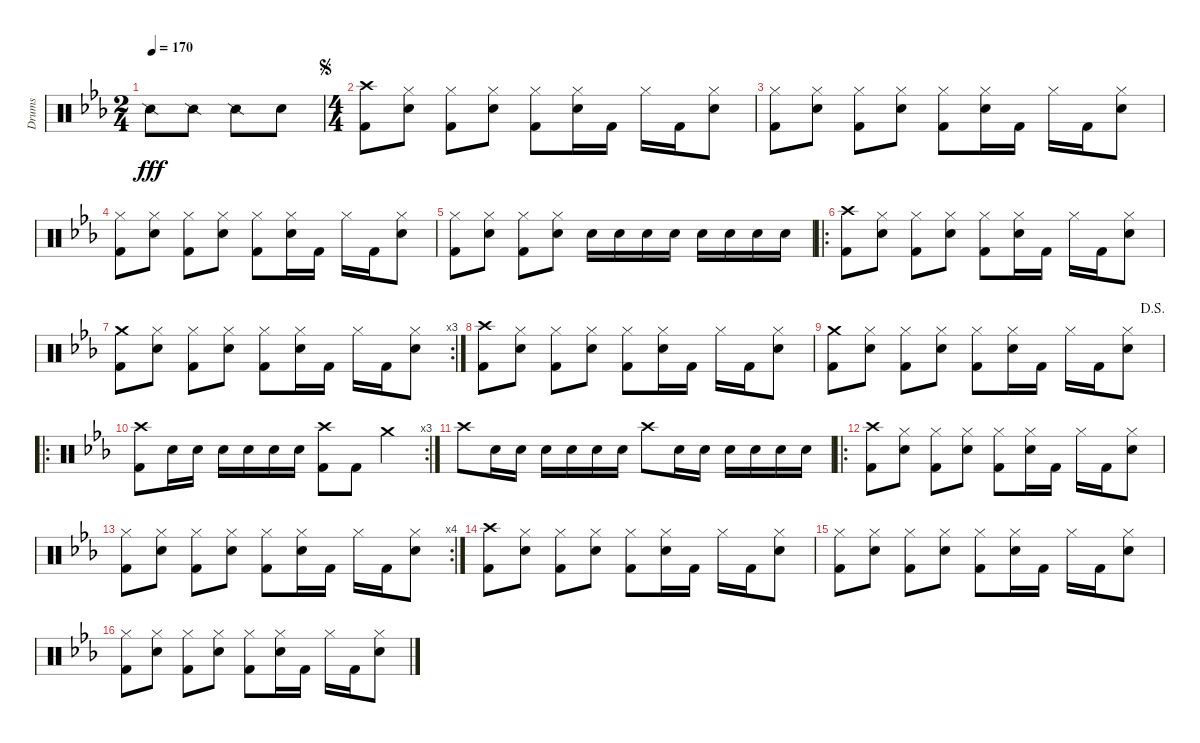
\track ("Drums" "Drums") {instrument percussion}
\staff {score}
\articulation defaults
\ts (2 4)
\tempo 170
\clef neutral
\ks eb "Snare (side stick) 2".8{dy fff} "Snare (side stick) 2".8 "Snare (side stick) 2".8 "Electric Snare (hit)".8
|
\ts (4 4)
\jump segno
("Crash high (hit)" "Kick (hit) 2").8 ("Hi-Hat (closed)" "Electric Snare (hit)").8 ("Hi-Hat (closed)" "Kick (hit) 2").8 ("Hi-Hat (closed)" "Electric Snare (hit)").8 ("Hi-Hat (closed)" "Kick (hit) 2").8 ("Hi-Hat (closed)" "Electric Snare (hit)").16 "Kick (hit) 2".16 "Hi-Hat (closed)".16 "Kick (hit) 2".16 ("Hi-Hat (closed)" "Electric Snare (hit)").8 |
("Hi-Hat (closed)" "Kick (hit) 2").8 ("Hi-Hat (closed)" "Electric Snare (hit)").8 ("Hi-Hat (closed)" "Kick (hit) 2").8 ("Hi-Hat (closed)" "Electric Snare (hit)").8 ("Hi-Hat (closed)" "Kick (hit) 2").8 ("Hi-Hat (closed)" "Electric Snare (hit)").16 "Kick (hit) 2".16 "Hi-Hat (closed)".16 "Kick (hit) 2".16 ("Hi-Hat (closed)" "Electric Snare (hit)").8 |
("Hi-Hat (closed)" "Kick (hit) 2").8 ("Hi-Hat (closed)" "Electric Snare (hit)").8 ("Hi-Hat (closed)" "Kick (hit) 2").8 ("Hi-Hat (closed)" "Electric Snare (hit)").8 ("Hi-Hat (closed)" "Kick (hit) 2").8 ("Hi-Hat (closed)" "Electric Snare (hit)").16 "Kick (hit) 2".16 "Hi-Hat (closed)".16 "Kick (hit) 2".16 ("Hi-Hat (closed)" "Electric Snare (hit)").8 |
("Hi-Hat (closed)" "Kick (hit) 2").8 ("Hi-Hat (closed)" "Electric Snare (hit)").8 ("Hi-Hat (closed)" "Kick (hit) 2").8 ("Hi-Hat (closed)" "Electric Snare (hit)").8 "Electric Snare (hit)".16 "Electric Snare (hit)".16 "Electric Snare (hit)".16 "Electric Snare (hit)".16 "Electric Snare (hit)".16 "Electric Snare (hit)".16 "Electric Snare (hit)".16 "Electric Snare (hit)".16 |
\ro
("Crash high (hit)" "Kick (hit) 2").8 ("Hi-Hat (closed)" "Electric Snare (hit)").8 ("Hi-Hat (closed)" "Kick (hit) 2").8 ("Hi-Hat (closed)" "Electric Snare (hit)").8 ("Hi-Hat (closed)" "Kick (hit) 2").8 ("Hi-Hat (closed)" "Electric Snare (hit)").16 "Kick (hit) 2".16 "Hi-Hat (closed)".16 "Kick (hit) 2".16 ("Hi-Hat (closed)" "Electric Snare (hit)").8 |
\rc 3
("Crash medium (hit)" "Kick (hit) 2").8 ("Hi-Hat (closed)" "Electric Snare (hit)").8 ("Hi-Hat (closed)" "Kick (hit) 2").8 ("Hi-Hat (closed)" "Electric Snare (hit)").8 ("Hi-Hat (closed)" "Kick (hit) 2").8 ("Hi-Hat (closed)" "Electric Snare (hit)").16 "Kick (hit) 2".16 "Hi-Hat (closed)".16 "Kick (hit) 2".16 ("Hi-Hat (closed)" "Electric Snare (hit)").8 |
("Crash high (hit)" "Kick (hit) 2").8 ("Hi-Hat (closed)" "Electric Snare (hit)").8 ("Hi-Hat (closed)" "Kick (hit) 2").8 ("Hi-Hat (closed)" "Electric Snare (hit)").8 ("Hi-Hat (closed)" "Kick (hit) 2").8 ("Hi-Hat (closed)" "Electric Snare (hit)").16 "Kick (hit) 2".16 "Hi-Hat (closed)".16 "Kick (hit) 2".16 ("Hi-Hat (closed)" "Electric Snare (hit)").8 |
\jump dalsegno
("Crash medium (hit)" "Kick (hit) 2").8 ("Hi-Hat (closed)" "Electric Snare (hit)").8 ("Hi-Hat (closed)" "Kick (hit) 2").8 ("Hi-Hat (closed)" "Electric Snare (hit)").8 ("Hi-Hat (closed)" "Kick (hit) 2").8 ("Hi-Hat (closed)" "Electric Snare (hit)").16 "Kick (hit) 2".16 "Hi-Hat (closed)".16 "Kick (hit) 2".16 ("Hi-Hat (closed)" "Electric Snare (hit)").8 |
\ro
\rc 3
("Crash high (hit)" "Kick (hit) 2").8 "Electric Snare (hit)".16 "Electric Snare (hit)".16 "Electric Snare (hit)".16 "Electric Snare (hit)".16 "Electric Snare (hit)".16 "Electric Snare (hit)".16 ("Crash high (hit)" "Kick (hit) 2").8 "Kick (hit) 2".8 "Crash medium (hit)".4 |
"Crash high (hit)".8 "Electric Snare (hit)".16 "Electric Snare (hit)".16 "Electric Snare (hit)".16 "Electric Snare (hit)".16 "Electric Snare (hit)".16 "Electric Snare (hit)".16 "Crash high (hit)".8 "Electric Snare (hit)".16 "Electric Snare (hit)".16 "Electric Snare (hit)".16 "Electric Snare (hit)".16 "Electric Snare (hit)".16 "Electric Snare (hit)".16 |
\ro
("Crash high (hit)" "Kick (hit) 2").8 ("Hi-Hat (closed)" "Electric Snare (hit)").8 ("Hi-Hat (closed)" "Kick (hit) 2").8 ("Hi-Hat (closed)" "Electric Snare (hit)").8 ("Hi-Hat (closed)" "Kick (hit) 2").8 ("Hi-Hat (closed)" "Electric Snare (hit)").16 "Kick (hit) 2".16 "Hi-Hat (closed)".16 "Kick (hit) 2".16 ("Hi-Hat (closed)" "Electric Snare (hit)").8 |
\rc 4
("Hi-Hat (closed)" "Kick (hit) 2").8 ("Hi-Hat (closed)" "Electric Snare (hit)").8 ("Hi-Hat (closed)" "Kick (hit) 2").8 ("Hi-Hat (closed)" "Electric Snare (hit)").8 ("Hi-Hat (closed)" "Kick (hit) 2").8 ("Hi-Hat (closed)" "Electric Snare (hit)").16 "Kick (hit) 2".16 "Hi-Hat (closed)".16 "Kick (hit) 2".16 ("Hi-Hat (closed)" "Electric Snare (hit)").8 |
("Crash high (hit)" "Kick (hit) 2").8 ("Hi-Hat (closed)" "Electric Snare (hit)").8 ("Hi-Hat (closed)" "Kick (hit) 2").8 ("Hi-Hat (closed)" "Electric Snare (hit)").8 ("Hi-Hat (closed)" "Kick (hit) 2").8 ("Hi-Hat (closed)" "Electric Snare (hit)").16 "Kick (hit) 2".16 "Hi-Hat (closed)".16 "Kick (hit) 2".16 ("Hi-Hat (closed)" "Electric Snare (hit)").8 |
("Hi-Hat (closed)" "Kick (hit) 2").8 ("Hi-Hat (closed)" "Electric Snare (hit)").8 ("Hi-Hat (closed)" "Kick (hit) 2").8 ("Hi-Hat (closed)" "Electric Snare (hit)").8 ("Hi-Hat (closed)" "Kick (hit) 2").8 ("Hi-Hat (closed)" "Electric Snare (hit)").16 "Kick (hit) 2".16 "Hi-Hat (closed)".16 "Kick (hit) 2".16 ("Hi-Hat (closed)" "Electric Snare (hit)").8 |
("Hi-Hat (closed)" "Kick (hit) 2").8 ("Hi-Hat (closed)" "Electric Snare (hit)").8 ("Hi-Hat (closed)" "Kick (hit) 2").8 ("Hi-Hat (closed)" "Electric Snare (hit)").8 ("Hi-Hat (closed)" "Kick (hit) 2").8 ("Hi-Hat (closed)" "Electric Snare (hit)").16 "Kick (hit) 2".16 "Hi-Hat (closed)".16 "Kick (hit) 2".16 ("Hi-Hat (closed)" "Electric Snare (hit)").8
